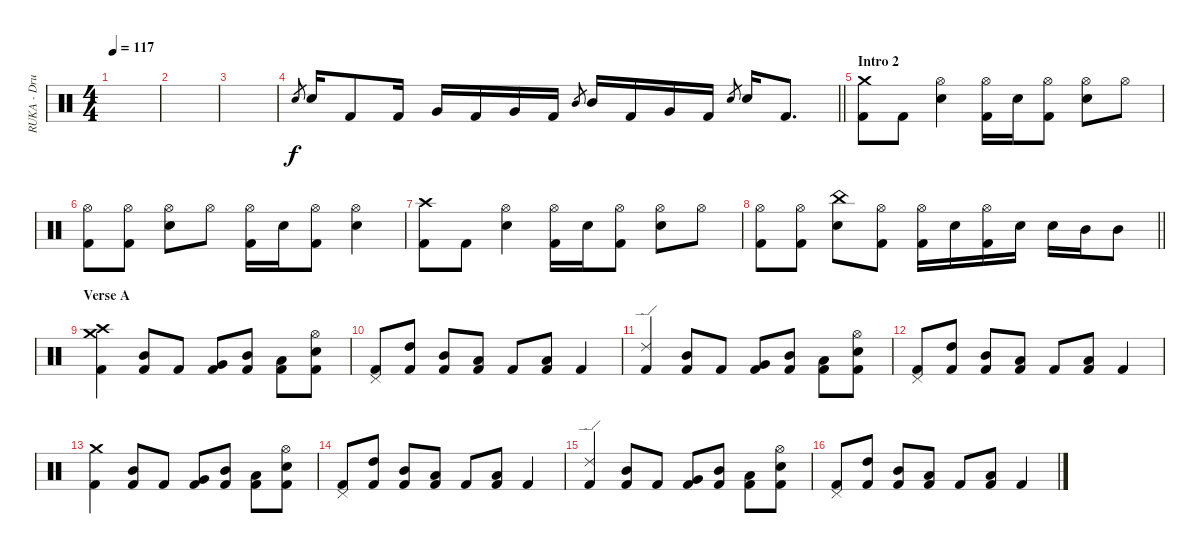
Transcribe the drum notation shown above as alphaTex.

\track ("RUKA - Drums" "RUKA - Dru") {instrument percussion}
\staff {score}
\articulation defaults
\ts (4 4)
\tempo 117
\clef neutral
\ks c
|
|
|
\barLineRight lightlight "Electric Snare (hit)".8{gr} "Electric Snare (hit)".16 "Kick (hit) 2".8 "Kick (hit) 2".16 "Very Low Tom (hit)".16 "Kick (hit) 2".16 "Very Low Tom (hit)".16 "Kick (hit) 2".16 "Mid Tom (hit)".8{gr} "Mid Tom (hit)".16 "Kick (hit) 2".16 "Very Low Tom (hit)".16 "Kick (hit) 2".16 "Electric Snare (hit)".8{gr} "Electric Snare (hit)".16 "Kick (hit) 2".8{d}
|
\section ("" "Intro 2")
("Kick (hit) 2" "Crash medium (hit)").8 "Kick (hit) 2".8 ("Hi-Hat (open)" "Electric Snare (hit)").4 ("Hi-Hat (open)" "Kick (hit) 2").16 "Electric Snare (hit)".16 ("Hi-Hat (open)" "Kick (hit) 2").8 ("Hi-Hat (open)" "Electric Snare (hit)").8 "Hi-Hat (open)".8 |
("Hi-Hat (open)" "Kick (hit) 2").8 ("Hi-Hat (open)" "Kick (hit) 2").8 ("Hi-Hat (open)" "Electric Snare (hit)").8 "Hi-Hat (open)".8 ("Hi-Hat (open)" "Kick (hit) 2").16 "Electric Snare (hit)".16 ("Hi-Hat (open)" "Kick (hit) 2").8 ("Hi-Hat (open)" "Electric Snare (hit)").4 |
("Kick (hit) 2" "Crash high (hit)").8 "Kick (hit) 2".8 ("Hi-Hat (open)" "Electric Snare (hit)").4 ("Hi-Hat (open)" "Kick (hit) 2").16 "Electric Snare (hit)".16 ("Hi-Hat (open)" "Kick (hit) 2").8 ("Hi-Hat (open)" "Electric Snare (hit)").8 "Hi-Hat (open)".8 |
\barLineRight lightlight
("Hi-Hat (open)" "Kick (hit) 2").8 ("Hi-Hat (open)" "Kick (hit) 2").8 ("China (hit)" "Electric Snare (hit)").8 ("Hi-Hat (open)" "Kick (hit) 2").8 ("Hi-Hat (open)" "Kick (hit) 2").16 "Electric Snare (hit)".16 ("Hi-Hat (open)" "Kick (hit) 2").16 "Electric Snare (hit)".16 "Electric Snare (hit)".16 "Mid Tom (hit)".16 "Mid Tom (hit)".8 |
\section ("" "Verse A")
("Kick (hit) 2" "Crash medium (hit)" "Crash high (hit)").4 ("Mid Tom (hit)" "Kick (hit) 2").8 "Kick (hit) 2".8 ("Very Low Tom (hit)" "Kick (hit) 2").8 ("Mid Tom (hit)" "Kick (hit) 2").8 ("Low Floor Tom (hit)" "Kick (hit) 2").8 ("Hi-Hat (open)" "Electric Snare (hit)" "Kick (hit) 2").8 |
("Pedal Hi-Hat (hit)" "Kick (hit) 2").8 ("High Tom (hit)" "Kick (hit) 2").8 ("Mid Tom (hit)" "Kick (hit) 2").8 ("Low Floor Tom (hit)" "Kick (hit) 2").8 "Kick (hit) 2".8 ("Low Floor Tom (hit)" "Kick (hit) 2").8 "Kick (hit) 2".4 |
("Kick (hit) 2" "Ride (edge) 2").4 ("Mid Tom (hit)" "Kick (hit) 2").8 "Kick (hit) 2".8 ("Very Low Tom (hit)" "Kick (hit) 2").8 ("Mid Tom (hit)" "Kick (hit) 2").8 ("Low Floor Tom (hit)" "Kick (hit) 2").8 ("Hi-Hat (open)" "Electric Snare (hit)" "Kick (hit) 2").8 |
("Pedal Hi-Hat (hit)" "Kick (hit) 2").8 ("High Tom (hit)" "Kick (hit) 2").8 ("Mid Tom (hit)" "Kick (hit) 2").8 ("Low Floor Tom (hit)" "Kick (hit) 2").8 "Kick (hit) 2".8 ("Low Floor Tom (hit)" "Kick (hit) 2").8 "Kick (hit) 2".4 |
("Kick (hit) 2" "Crash medium (hit)").4 ("Mid Tom (hit)" "Kick (hit) 2").8 "Kick (hit) 2".8 ("Very Low Tom (hit)" "Kick (hit) 2").8 ("Mid Tom (hit)" "Kick (hit) 2").8 ("Low Floor Tom (hit)" "Kick (hit) 2").8 ("Hi-Hat (open)" "Electric Snare (hit)" "Kick (hit) 2").8 |
("Pedal Hi-Hat (hit)" "Kick (hit) 2").8 ("High Tom (hit)" "Kick (hit) 2").8 ("Mid Tom (hit)" "Kick (hit) 2").8 ("Low Floor Tom (hit)" "Kick (hit) 2").8 "Kick (hit) 2".8 ("Low Floor Tom (hit)" "Kick (hit) 2").8 "Kick (hit) 2".4 |
("Kick (hit) 2" "Ride (edge) 2").4 ("Mid Tom (hit)" "Kick (hit) 2").8 "Kick (hit) 2".8 ("Very Low Tom (hit)" "Kick (hit) 2").8 ("Mid Tom (hit)" "Kick (hit) 2").8 ("Low Floor Tom (hit)" "Kick (hit) 2").8 ("Hi-Hat (open)" "Electric Snare (hit)" "Kick (hit) 2").8 |
("Pedal Hi-Hat (hit)" "Kick (hit) 2").8 ("High Tom (hit)" "Kick (hit) 2").8 ("Mid Tom (hit)" "Kick (hit) 2").8 ("Low Floor Tom (hit)" "Kick (hit) 2").8 "Kick (hit) 2".8 ("Low Floor Tom (hit)" "Kick (hit) 2").8 "Kick (hit) 2".4
